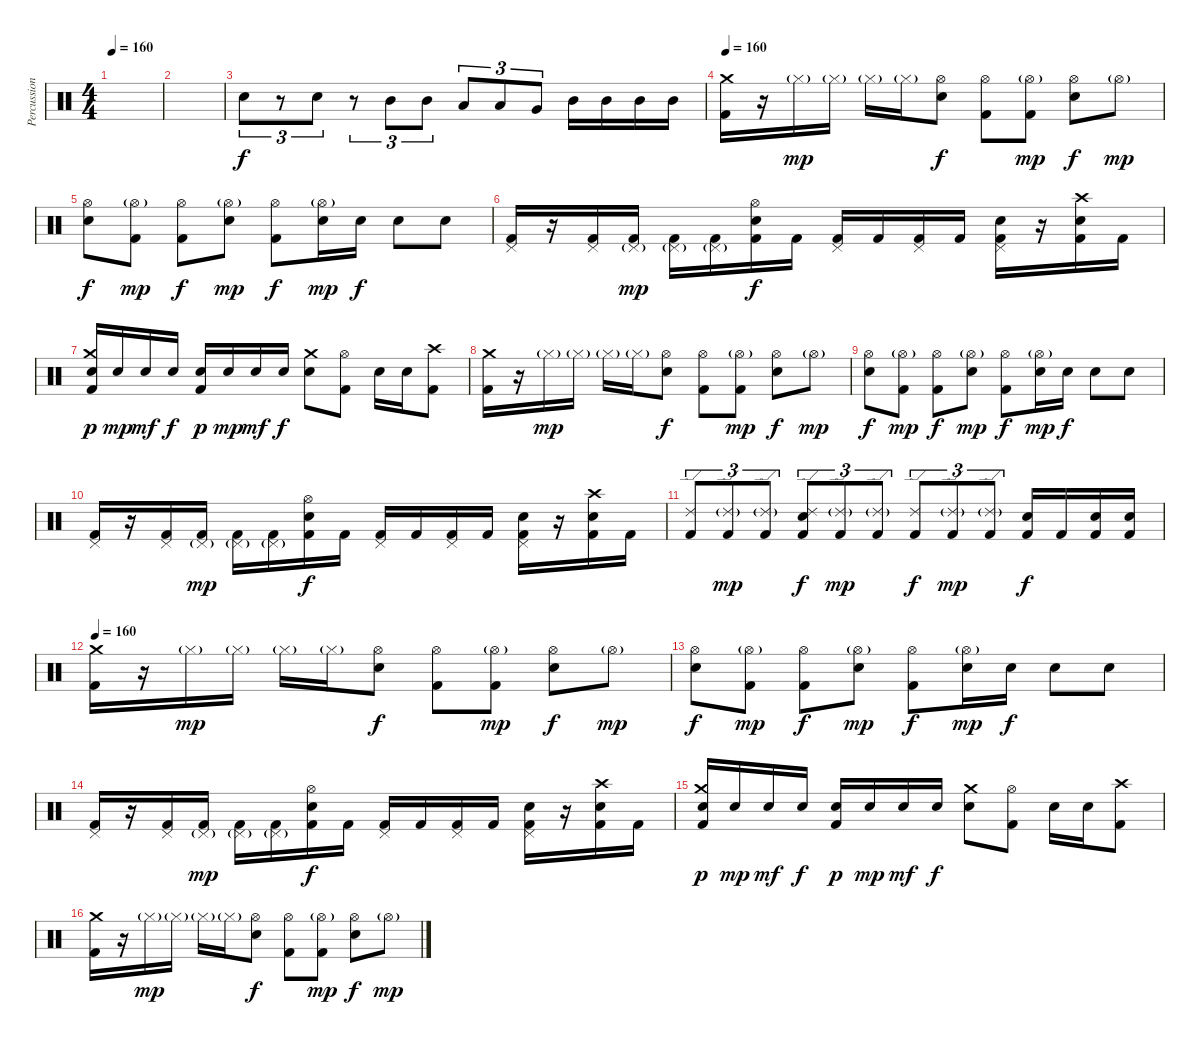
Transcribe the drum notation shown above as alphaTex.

\track ("Percussions" "Percussion") {instrument percussion}
\staff {score}
\articulation defaults
\ts (4 4)
\tempo 160
\clef neutral
\ks c
|
|
"Electric Snare (hit)".8{tu (3 2) dy f} r.8{tu (3 2)} "Snare (hit) 2".8{tu (3 2)} r.8{tu (3 2)} "Mid Tom (hit)".8{tu (3 2)} "Mid Tom (hit)".8{tu (3 2)} "Low Tom (hit)".8{tu (3 2)} "Low Tom (hit)".8{tu (3 2)} "Very Low Tom (hit)".8{tu (3 2)} "Mid Tom (hit)".16 "Mid Tom (hit)".16 "Mid Tom (hit)".16 "Mid Tom (hit)".16 |
\tempo 160
("Crash medium (hit)" "Kick (hit) 2").16 r.16 "Hi-Hat (closed)"{g}.16{dy mp} "Hi-Hat (closed)"{g}.16 "Hi-Hat (closed)"{g}.16 "Hi-Hat (closed)"{g}.16 ("Hi-Hat (open)" "Electric Snare (hit)").8{dy f} ("Hi-Hat (open)" "Kick (hit) 2").8 ("Hi-Hat (open)"{g} "Kick (hit) 2").8{dy mp} ("Hi-Hat (open)" "Electric Snare (hit)").8{dy f} "Hi-Hat (open)"{g}.8{dy mp} |
("Hi-Hat (open)" "Electric Snare (hit)").8{dy f} ("Hi-Hat (open)"{g} "Kick (hit) 2").8{dy mp} ("Hi-Hat (open)" "Kick (hit) 2").8{dy f} ("Hi-Hat (open)"{g} "Electric Snare (hit)").8{dy mp} ("Hi-Hat (open)" "Kick (hit) 2").8{dy f} ("Hi-Hat (open)"{g} "Electric Snare (hit)").16{dy mp} "Electric Snare (hit)".16{dy f} "Electric Snare (hit)".8 "Snare (hit) 2".8 |
("Kick (hit) 2" "Pedal Hi-Hat (hit)").16 r.16 ("Kick (hit) 2" "Pedal Hi-Hat (hit)").16 ("Kick (hit) 2" "Pedal Hi-Hat (hit)"{g}).16{dy mp} ("Kick (hit) 2" "Pedal Hi-Hat (hit)"{g}).16 ("Kick (hit) 2" "Pedal Hi-Hat (hit)"{g}).16 ("Kick (hit) 2" "Electric Snare (hit)" "Hi-Hat (open)").16{dy f} "Kick (hit) 2".16 ("Kick (hit) 2" "Pedal Hi-Hat (hit)").16 "Kick (hit) 2".16 ("Kick (hit) 2" "Pedal Hi-Hat (hit)").16 "Kick (hit) 2".16 ("Kick (hit) 2" "Electric Snare (hit)" "Pedal Hi-Hat (hit)").16 r.16 ("Kick (hit) 2" "Electric Snare (hit)" "Crash high (hit)").16 "Kick (hit) 2".16 |
("Electric Snare (hit)" "Crash medium (hit)" "Kick (hit) 2").16{dy p} "Electric Snare (hit)".16{dy mp} "Electric Snare (hit)".16{dy mf} "Electric Snare (hit)".16{dy f} ("Electric Snare (hit)" "Kick (hit) 2").16{dy p} "Electric Snare (hit)".16{dy mp} "Electric Snare (hit)".16{dy mf} "Electric Snare (hit)".16{dy f} ("Electric Snare (hit)" "Crash medium (hit)").8 ("Kick (hit) 2" "Hi-Hat (open)").8 "Electric Snare (hit)".16 "Electric Snare (hit)".16 ("Kick (hit) 2" "Crash high (hit)").8 |
("Crash medium (hit)" "Kick (hit) 2").16 r.16 "Hi-Hat (closed)"{g}.16{dy mp} "Hi-Hat (closed)"{g}.16 "Hi-Hat (closed)"{g}.16 "Hi-Hat (closed)"{g}.16 ("Hi-Hat (open)" "Electric Snare (hit)").8{dy f} ("Hi-Hat (open)" "Kick (hit) 2").8 ("Hi-Hat (open)"{g} "Kick (hit) 2").8{dy mp} ("Hi-Hat (open)" "Electric Snare (hit)").8{dy f} "Hi-Hat (open)"{g}.8{dy mp} |
("Hi-Hat (open)" "Electric Snare (hit)").8{dy f} ("Hi-Hat (open)"{g} "Kick (hit) 2").8{dy mp} ("Hi-Hat (open)" "Kick (hit) 2").8{dy f} ("Hi-Hat (open)"{g} "Electric Snare (hit)").8{dy mp} ("Hi-Hat (open)" "Kick (hit) 2").8{dy f} ("Hi-Hat (open)"{g} "Electric Snare (hit)").16{dy mp} "Electric Snare (hit)".16{dy f} "Electric Snare (hit)".8 "Snare (hit) 2".8 |
("Kick (hit) 2" "Pedal Hi-Hat (hit)").16 r.16 ("Kick (hit) 2" "Pedal Hi-Hat (hit)").16 ("Kick (hit) 2" "Pedal Hi-Hat (hit)"{g}).16{dy mp} ("Kick (hit) 2" "Pedal Hi-Hat (hit)"{g}).16 ("Kick (hit) 2" "Pedal Hi-Hat (hit)"{g}).16 ("Kick (hit) 2" "Electric Snare (hit)" "Hi-Hat (open)").16{dy f} "Kick (hit) 2".16 ("Kick (hit) 2" "Pedal Hi-Hat (hit)").16 "Kick (hit) 2".16 ("Kick (hit) 2" "Pedal Hi-Hat (hit)").16 "Kick (hit) 2".16 ("Kick (hit) 2" "Electric Snare (hit)" "Pedal Hi-Hat (hit)").16 r.16 ("Kick (hit) 2" "Electric Snare (hit)" "Crash high (hit)").16 "Kick (hit) 2".16 |
("Kick (hit) 2" "Ride (edge) 2").8{tu (3 2)} ("Kick (hit) 2" "Ride (edge) 2"{g}).8{tu (3 2) dy mp} ("Kick (hit) 2" "Ride (edge) 2"{g}).8{tu (3 2)} ("Kick (hit) 2" "Electric Snare (hit)" "Ride (edge) 2").8{tu (3 2) dy f} ("Kick (hit) 2" "Ride (edge) 2"{g}).8{tu (3 2) dy mp} ("Kick (hit) 2" "Ride (edge) 2"{g}).8{tu (3 2)} ("Kick (hit) 2" "Ride (edge) 2").8{tu (3 2) dy f} ("Kick (hit) 2" "Ride (edge) 2"{g}).8{tu (3 2) dy mp} ("Kick (hit) 2" "Ride (edge) 2"{g}).8{tu (3 2)} ("Kick (hit) 2" "Electric Snare (hit)").16{dy f} "Kick (hit) 2".16 ("Kick (hit) 2" "Snare (hit) 2").16 ("Kick (hit) 2" "Snare (hit) 2").16 |
\tempo 160
("Crash medium (hit)" "Kick (hit) 2").16 r.16 "Hi-Hat (closed)"{g}.16{dy mp} "Hi-Hat (closed)"{g}.16 "Hi-Hat (closed)"{g}.16 "Hi-Hat (closed)"{g}.16 ("Hi-Hat (open)" "Electric Snare (hit)").8{dy f} ("Hi-Hat (open)" "Kick (hit) 2").8 ("Hi-Hat (open)"{g} "Kick (hit) 2").8{dy mp} ("Hi-Hat (open)" "Electric Snare (hit)").8{dy f} "Hi-Hat (open)"{g}.8{dy mp} |
("Hi-Hat (open)" "Electric Snare (hit)").8{dy f} ("Hi-Hat (open)"{g} "Kick (hit) 2").8{dy mp} ("Hi-Hat (open)" "Kick (hit) 2").8{dy f} ("Hi-Hat (open)"{g} "Electric Snare (hit)").8{dy mp} ("Hi-Hat (open)" "Kick (hit) 2").8{dy f} ("Hi-Hat (open)"{g} "Electric Snare (hit)").16{dy mp} "Electric Snare (hit)".16{dy f} "Electric Snare (hit)".8 "Snare (hit) 2".8 |
("Kick (hit) 2" "Pedal Hi-Hat (hit)").16 r.16 ("Kick (hit) 2" "Pedal Hi-Hat (hit)").16 ("Kick (hit) 2" "Pedal Hi-Hat (hit)"{g}).16{dy mp} ("Kick (hit) 2" "Pedal Hi-Hat (hit)"{g}).16 ("Kick (hit) 2" "Pedal Hi-Hat (hit)"{g}).16 ("Kick (hit) 2" "Electric Snare (hit)" "Hi-Hat (open)").16{dy f} "Kick (hit) 2".16 ("Kick (hit) 2" "Pedal Hi-Hat (hit)").16 "Kick (hit) 2".16 ("Kick (hit) 2" "Pedal Hi-Hat (hit)").16 "Kick (hit) 2".16 ("Kick (hit) 2" "Electric Snare (hit)" "Pedal Hi-Hat (hit)").16 r.16 ("Kick (hit) 2" "Electric Snare (hit)" "Crash high (hit)").16 "Kick (hit) 2".16 |
("Electric Snare (hit)" "Crash medium (hit)" "Kick (hit) 2").16{dy p} "Electric Snare (hit)".16{dy mp} "Electric Snare (hit)".16{dy mf} "Electric Snare (hit)".16{dy f} ("Electric Snare (hit)" "Kick (hit) 2").16{dy p} "Electric Snare (hit)".16{dy mp} "Electric Snare (hit)".16{dy mf} "Electric Snare (hit)".16{dy f} ("Electric Snare (hit)" "Crash medium (hit)").8 ("Kick (hit) 2" "Hi-Hat (open)").8 "Electric Snare (hit)".16 "Electric Snare (hit)".16 ("Kick (hit) 2" "Crash high (hit)").8 |
("Crash medium (hit)" "Kick (hit) 2").16 r.16 "Hi-Hat (closed)"{g}.16{dy mp} "Hi-Hat (closed)"{g}.16 "Hi-Hat (closed)"{g}.16 "Hi-Hat (closed)"{g}.16 ("Hi-Hat (open)" "Electric Snare (hit)").8{dy f} ("Hi-Hat (open)" "Kick (hit) 2").8 ("Hi-Hat (open)"{g} "Kick (hit) 2").8{dy mp} ("Hi-Hat (open)" "Electric Snare (hit)").8{dy f} "Hi-Hat (open)"{g}.8{dy mp}
